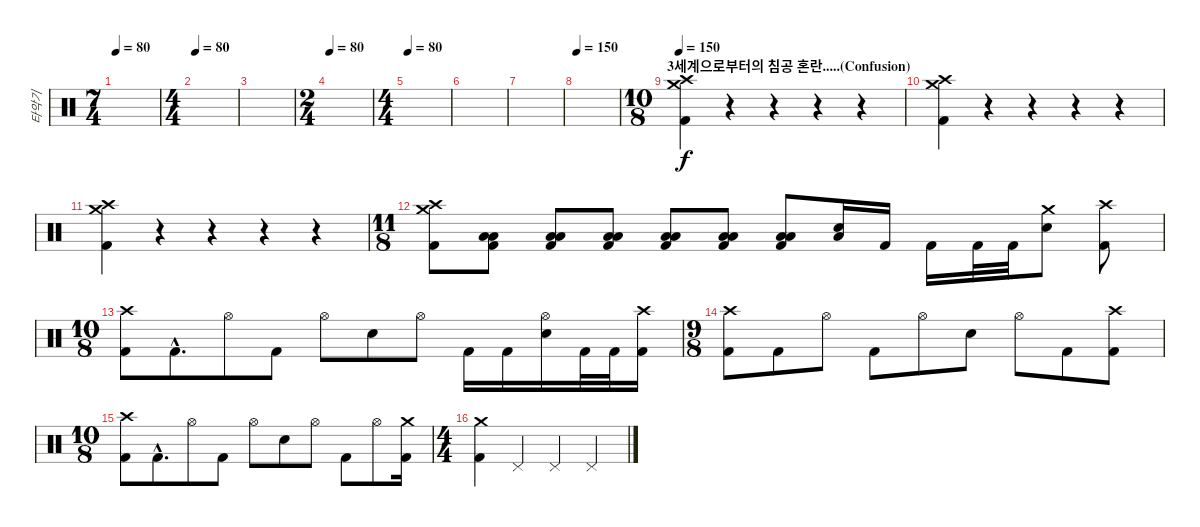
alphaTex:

\track ("타악기" "타악기") {instrument percussion}
\staff {score}
\articulation defaults
\ts (7 4)
\tempo 80
\clef neutral
\ks c
|
\ts (4 4)
\tempo 80
|
|
\ts (2 4)
\tempo 80
|
\ts (4 4)
\tempo 80
|
|
|
\tempo 150
|
\ts (10 8)
\section ("" "3세계으로부터의 침공 혼란.....(Confusion)")
\tempo 150
("Crash medium (hit)" "Crash high (hit)" "Kick (hit) 2").4 r.4 r.4 r.4 r.4 |
("Crash medium (hit)" "Crash high (hit)" "Kick (hit) 2").4 r.4 r.4 r.4 r.4 |
("Crash medium (hit)" "Kick (hit) 2" "Crash high (hit)").4 r.4 r.4 r.4 r.4 |
\ts (11 8)
("Crash medium (hit)" "Crash high (hit)" "Kick (hit) 2").8 ("Low Tom (hit)" "Low Floor Tom (hit)" "Kick (hit) 2").8 ("Low Floor Tom (hit)" "Low Tom (hit)" "Kick (hit) 2").8 ("Low Tom (hit)" "Low Floor Tom (hit)" "Kick (hit) 2").8 ("Kick (hit) 2" "Low Tom (hit)" "Low Floor Tom (hit)").8 ("Low Tom (hit)" "Kick (hit) 2" "Low Floor Tom (hit)").8 ("Low Floor Tom (hit)" "Kick (hit) 2" "Low Tom (hit)").8 ("Low Floor Tom (hit)" "Snare (hit) 2").16 "Kick (hit) 2".16 "Kick (hit) 2".16 "Kick (hit) 2".32 "Kick (hit) 2".32 ("Crash medium (hit)" "Snare (hit) 2").8 ("Crash high (hit)" "Kick (hit) 2").8 |
\ts (10 8)
("Crash high (hit)" "Kick (hit) 2").8 "Kick (hit) 2"{hac}.8{d} "Hi-Hat (open)".8 "Kick (hit) 2".8 "Hi-Hat (open)".8 "Snare (hit) 2".8 "Hi-Hat (open)".8 "Kick (hit) 2".16 "Kick (hit) 2".16 ("Hi-Hat (open)" "Snare (hit) 2").16 "Kick (hit) 2".32 "Kick (hit) 2".32 ("Crash high (hit)" "Kick (hit) 2").16 |
\ts (9 8)
("Crash high (hit)" "Kick (hit) 2").8 "Kick (hit) 2".8 "Hi-Hat (open)".8 "Kick (hit) 2".8 "Hi-Hat (open)".8 "Snare (hit) 2".8 "Hi-Hat (open)".8 "Kick (hit) 2".8 ("Crash high (hit)" "Kick (hit) 2").8 |
\ts (10 8)
("Crash high (hit)" "Kick (hit) 2").8 "Kick (hit) 2"{hac}.8{d} "Hi-Hat (open)".8 "Kick (hit) 2".8 "Hi-Hat (open)".8 "Snare (hit) 2".8 "Hi-Hat (open)".8 "Kick (hit) 2".8 "Hi-Hat (open)".8 ("Crash medium (hit)" "Kick (hit) 2").16 |
\ts (4 4)
("Crash medium (hit)" "Kick (hit) 2").4 "Pedal Hi-Hat (hit)".4 "Pedal Hi-Hat (hit)".4 "Pedal Hi-Hat (hit)".4
